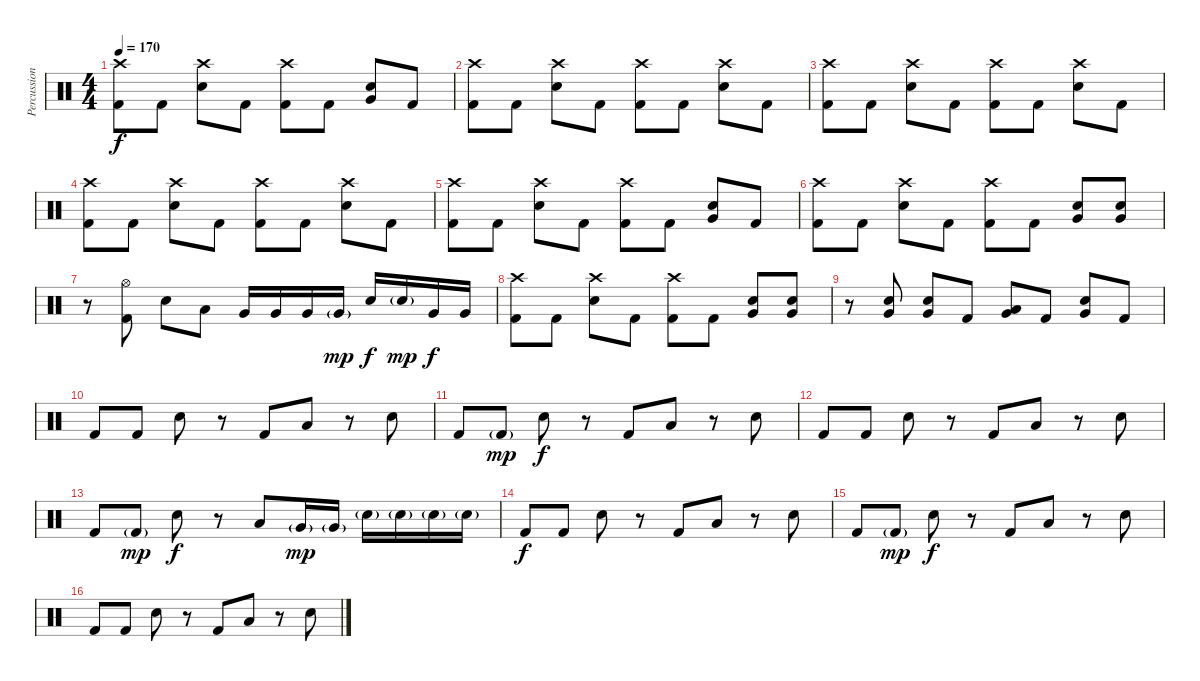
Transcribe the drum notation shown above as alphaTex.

\track ("Percussion" "Percussion") {instrument percussion}
\staff {score}
\articulation defaults
\ts (4 4)
\tempo 170
\clef neutral
\ks c
("Crash high (hit)" "Kick (hit) 2").8{dy f} "Kick (hit) 2".8 ("Crash high (hit)" "Electric Snare (hit)").8 "Kick (hit) 2".8 ("Crash high (hit)" "Kick (hit) 2").8 "Kick (hit) 2".8 ("Very Low Tom (hit)" "Electric Snare (hit)").8 "Kick (hit) 2".8 |
("Crash high (hit)" "Kick (hit) 2").8 "Kick (hit) 2".8 ("Crash high (hit)" "Electric Snare (hit)").8 "Kick (hit) 2".8 ("Crash high (hit)" "Kick (hit) 2").8 "Kick (hit) 2".8 ("Crash high (hit)" "Electric Snare (hit)").8 "Kick (hit) 2".8 |
("Crash high (hit)" "Kick (hit) 2").8 "Kick (hit) 2".8 ("Crash high (hit)" "Electric Snare (hit)").8 "Kick (hit) 2".8 ("Crash high (hit)" "Kick (hit) 2").8 "Kick (hit) 2".8 ("Crash high (hit)" "Electric Snare (hit)").8 "Kick (hit) 2".8 |
("Crash high (hit)" "Kick (hit) 2").8 "Kick (hit) 2".8 ("Crash high (hit)" "Electric Snare (hit)").8 "Kick (hit) 2".8 ("Crash high (hit)" "Kick (hit) 2").8 "Kick (hit) 2".8 ("Crash high (hit)" "Electric Snare (hit)").8 "Kick (hit) 2".8 |
("Crash high (hit)" "Kick (hit) 2").8 "Kick (hit) 2".8 ("Crash high (hit)" "Electric Snare (hit)").8 "Kick (hit) 2".8 ("Crash high (hit)" "Kick (hit) 2").8 "Kick (hit) 2".8 ("Very Low Tom (hit)" "Electric Snare (hit)").8 "Kick (hit) 2".8 |
("Crash high (hit)" "Kick (hit) 2").8 "Kick (hit) 2".8 ("Crash high (hit)" "Electric Snare (hit)").8 "Kick (hit) 2".8 ("Crash high (hit)" "Kick (hit) 2").8 "Kick (hit) 2".8 ("Very Low Tom (hit)" "Electric Snare (hit)").8 ("Very Low Tom (hit)" "Electric Snare (hit)").8 |
r.8 ("Hi-Hat (open)" "Kick (hit) 2").8 "Electric Snare (hit)".8 "Low Tom (hit)".8 "Very Low Tom (hit)".16 "Very Low Tom (hit)".16 "Very Low Tom (hit)".16 "Very Low Tom (hit)"{g}.16{dy mp} "Electric Snare (hit)".16{dy f} "Electric Snare (hit)"{g}.16{dy mp} "Very Low Tom (hit)".16{dy f} "Very Low Tom (hit)".16 |
("Crash high (hit)" "Kick (hit) 2").8 "Kick (hit) 2".8 ("Crash high (hit)" "Electric Snare (hit)").8 "Kick (hit) 2".8 ("Crash high (hit)" "Kick (hit) 2").8 "Kick (hit) 2".8 ("Very Low Tom (hit)" "Electric Snare (hit)").8 ("Very Low Tom (hit)" "Electric Snare (hit)").8 |
r.8 ("Very Low Tom (hit)" "Electric Snare (hit)").8 ("Very Low Tom (hit)" "Electric Snare (hit)").8 "Kick (hit) 2".8 ("Low Floor Tom (hit)" "Very Low Tom (hit)").8 "Kick (hit) 2".8 ("Very Low Tom (hit)" "Electric Snare (hit)").8 "Kick (hit) 2".8 |
"Kick (hit) 2".8 "Kick (hit) 2".8 "Electric Snare (hit)".8 r.8 "Kick (hit) 2".8 "Low Floor Tom (hit)".8 r.8 "Electric Snare (hit)".8 |
"Kick (hit) 2".8 "Kick (hit) 2"{g}.8{dy mp} "Electric Snare (hit)".8{dy f} r.8 "Kick (hit) 2".8 "Low Floor Tom (hit)".8 r.8 "Electric Snare (hit)".8 |
"Kick (hit) 2".8 "Kick (hit) 2".8 "Electric Snare (hit)".8 r.8 "Kick (hit) 2".8 "Low Floor Tom (hit)".8 r.8 "Electric Snare (hit)".8 |
"Kick (hit) 2".8 "Kick (hit) 2"{g}.8{dy mp} "Electric Snare (hit)".8{dy f} r.8 "Low Tom (hit)".8 "Very Low Tom (hit)"{g}.16{dy mp} "Very Low Tom (hit)"{g}.16 "Electric Snare (hit)"{g}.16 "Electric Snare (hit)"{g}.16 "Electric Snare (hit)"{g}.16 "Electric Snare (hit)"{g}.16 |
"Kick (hit) 2".8{dy f} "Kick (hit) 2".8 "Electric Snare (hit)".8 r.8 "Kick (hit) 2".8 "Low Floor Tom (hit)".8 r.8 "Electric Snare (hit)".8 |
"Kick (hit) 2".8 "Kick (hit) 2"{g}.8{dy mp} "Electric Snare (hit)".8{dy f} r.8 "Kick (hit) 2".8 "Low Floor Tom (hit)".8 r.8 "Electric Snare (hit)".8 |
"Kick (hit) 2".8 "Kick (hit) 2".8 "Electric Snare (hit)".8 r.8 "Kick (hit) 2".8 "Low Floor Tom (hit)".8 r.8 "Electric Snare (hit)".8
